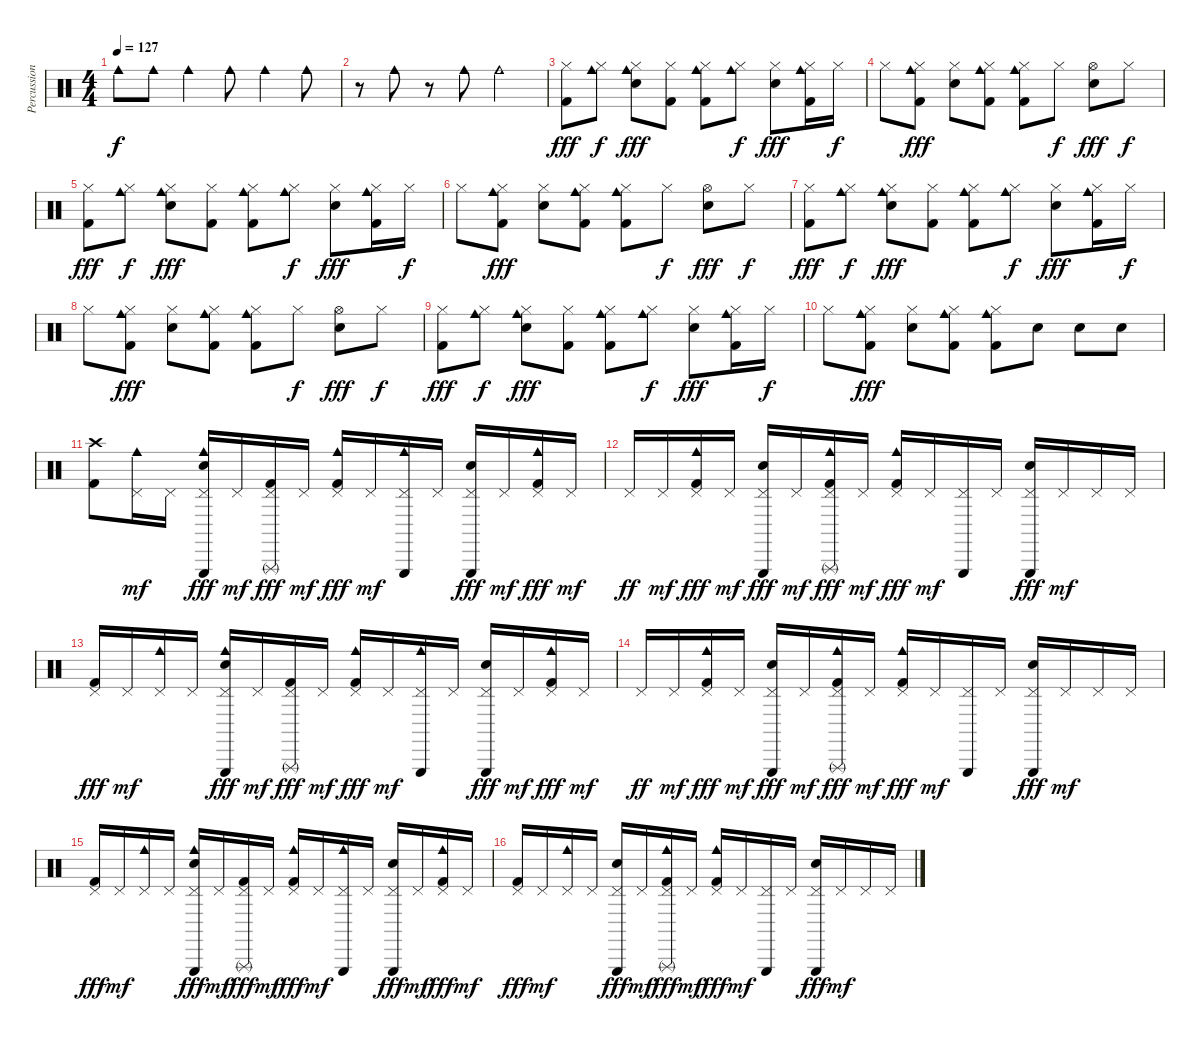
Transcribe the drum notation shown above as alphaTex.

\track ("Percussion" "Percussion") {instrument percussion}
\staff {score}
\articulation defaults
\ts (4 4)
\tempo 127
\clef neutral
\ks c "Cowbell medium (hit)".8{dy f volume 12} "Cowbell medium (hit)".8 "Cowbell medium (hit)".4 "Cowbell medium (hit)".8 "Cowbell medium (hit)".4 "Cowbell medium (hit)".8
|
r.8 "Cowbell medium (hit)".8 r.8 "Cowbell medium (hit)".8 "Cowbell medium (hit)".2 |
("Hi-Hat (closed)" "Kick (hit) 2").8{dy fff} ("Hi-Hat (closed)" "Cowbell medium (hit)").8{dy f} ("Hi-Hat (closed)" "Cowbell medium (hit)" "Electric Snare (hit)").8{dy fff} ("Hi-Hat (closed)" "Kick (hit) 2").8 ("Hi-Hat (closed)" "Cowbell medium (hit)" "Kick (hit) 2").8 ("Hi-Hat (closed)" "Cowbell medium (hit)").8{dy f} ("Hi-Hat (closed)" "Electric Snare (hit)").8{dy fff} ("Hi-Hat (closed)" "Cowbell medium (hit)" "Kick (hit) 2").16 "Hi-Hat (closed)".16{dy f} |
"Hi-Hat (closed)".8 ("Hi-Hat (closed)" "Cowbell medium (hit)" "Kick (hit) 2").8{dy fff} ("Hi-Hat (closed)" "Electric Snare (hit)").8 ("Hi-Hat (closed)" "Cowbell medium (hit)" "Kick (hit) 2").8 ("Hi-Hat (closed)" "Cowbell medium (hit)" "Kick (hit) 2").8 "Hi-Hat (closed)".8{dy f} ("Hi-Hat (open)" "Electric Snare (hit)").8{dy fff} "Hi-Hat (closed)".8{dy f} |
("Hi-Hat (closed)" "Kick (hit) 2").8{dy fff} ("Hi-Hat (closed)" "Cowbell medium (hit)").8{dy f} ("Hi-Hat (closed)" "Cowbell medium (hit)" "Electric Snare (hit)").8{dy fff} ("Hi-Hat (closed)" "Kick (hit) 2").8 ("Hi-Hat (closed)" "Cowbell medium (hit)" "Kick (hit) 2").8 ("Hi-Hat (closed)" "Cowbell medium (hit)").8{dy f} ("Hi-Hat (closed)" "Electric Snare (hit)").8{dy fff} ("Hi-Hat (closed)" "Cowbell medium (hit)" "Kick (hit) 2").16 "Hi-Hat (closed)".16{dy f} |
"Hi-Hat (closed)".8 ("Hi-Hat (closed)" "Cowbell medium (hit)" "Kick (hit) 2").8{dy fff} ("Hi-Hat (closed)" "Electric Snare (hit)").8 ("Hi-Hat (closed)" "Cowbell medium (hit)" "Kick (hit) 2").8 ("Hi-Hat (closed)" "Cowbell medium (hit)" "Kick (hit) 2").8 "Hi-Hat (closed)".8{dy f} ("Hi-Hat (open)" "Electric Snare (hit)").8{dy fff} "Hi-Hat (closed)".8{dy f} |
("Hi-Hat (closed)" "Kick (hit) 2").8{dy fff} ("Hi-Hat (closed)" "Cowbell medium (hit)").8{dy f} ("Hi-Hat (closed)" "Cowbell medium (hit)" "Electric Snare (hit)").8{dy fff} ("Hi-Hat (closed)" "Kick (hit) 2").8 ("Hi-Hat (closed)" "Cowbell medium (hit)" "Kick (hit) 2").8 ("Hi-Hat (closed)" "Cowbell medium (hit)").8{dy f} ("Hi-Hat (closed)" "Electric Snare (hit)").8{dy fff} ("Hi-Hat (closed)" "Cowbell medium (hit)" "Kick (hit) 2").16 "Hi-Hat (closed)".16{dy f} |
"Hi-Hat (closed)".8 ("Hi-Hat (closed)" "Cowbell medium (hit)" "Kick (hit) 2").8{dy fff} ("Hi-Hat (closed)" "Electric Snare (hit)").8 ("Hi-Hat (closed)" "Cowbell medium (hit)" "Kick (hit) 2").8 ("Hi-Hat (closed)" "Cowbell medium (hit)" "Kick (hit) 2").8 "Hi-Hat (closed)".8{dy f} ("Hi-Hat (open)" "Electric Snare (hit)").8{dy fff} "Hi-Hat (closed)".8{dy f} |
("Hi-Hat (closed)" "Kick (hit) 2").8{dy fff} ("Hi-Hat (closed)" "Cowbell medium (hit)").8{dy f} ("Hi-Hat (closed)" "Cowbell medium (hit)" "Electric Snare (hit)").8{dy fff} ("Hi-Hat (closed)" "Kick (hit) 2").8 ("Hi-Hat (closed)" "Cowbell medium (hit)" "Kick (hit) 2").8 ("Hi-Hat (closed)" "Cowbell medium (hit)").8{dy f} ("Hi-Hat (closed)" "Electric Snare (hit)").8{dy fff} ("Hi-Hat (closed)" "Cowbell medium (hit)" "Kick (hit) 2").16 "Hi-Hat (closed)".16{dy f} |
"Hi-Hat (closed)".8 ("Hi-Hat (closed)" "Cowbell medium (hit)" "Kick (hit) 2").8{dy fff} ("Hi-Hat (closed)" "Electric Snare (hit)").8 ("Hi-Hat (closed)" "Cowbell medium (hit)" "Kick (hit) 2").8 ("Hi-Hat (closed)" "Cowbell medium (hit)" "Kick (hit) 2").8 "Electric Snare (hit)".8 "Electric Snare (hit)".8 "Electric Snare (hit)".8 |
("Crash high (hit)" "Kick (hit) 2").8 ("Pedal Hi-Hat (hit)" "Cowbell medium (hit)").16{dy mf} "Pedal Hi-Hat (hit)".16 ("Pedal Hi-Hat (hit)" "Triangle (hit)" "Electric Snare (hit)" "Cowbell medium (hit)").16{dy fff} "Pedal Hi-Hat (hit)".16{dy mf} ("Pedal Hi-Hat (hit)" "Triangle (rnute)" "Kick (hit) 2").16{dy fff} "Pedal Hi-Hat (hit)".16{dy mf} ("Pedal Hi-Hat (hit)" "Cowbell medium (hit)" "Kick (hit) 2").16{dy fff} "Pedal Hi-Hat (hit)".16{dy mf} ("Pedal Hi-Hat (hit)" "Triangle (hit)" "Cowbell medium (hit)").16 "Pedal Hi-Hat (hit)".16 ("Pedal Hi-Hat (hit)" "Triangle (hit)" "Electric Snare (hit)").16{dy fff} "Pedal Hi-Hat (hit)".16{dy mf} ("Pedal Hi-Hat (hit)" "Cowbell medium (hit)" "Kick (hit) 2").16{dy fff} "Pedal Hi-Hat (hit)".16{dy mf} |
"Pedal Hi-Hat (hit)".16{dy ff} "Pedal Hi-Hat (hit)".16{dy mf} ("Pedal Hi-Hat (hit)" "Cowbell medium (hit)" "Kick (hit) 2").16{dy fff} "Pedal Hi-Hat (hit)".16{dy mf} ("Pedal Hi-Hat (hit)" "Triangle (hit)" "Electric Snare (hit)").16{dy fff} "Pedal Hi-Hat (hit)".16{dy mf} ("Pedal Hi-Hat (hit)" "Triangle (rnute)" "Cowbell medium (hit)" "Kick (hit) 2").16{dy fff} "Pedal Hi-Hat (hit)".16{dy mf} ("Pedal Hi-Hat (hit)" "Cowbell medium (hit)" "Kick (hit) 2").16{dy fff} "Pedal Hi-Hat (hit)".16{dy mf} ("Pedal Hi-Hat (hit)" "Triangle (hit)").16 "Pedal Hi-Hat (hit)".16 ("Pedal Hi-Hat (hit)" "Triangle (hit)" "Electric Snare (hit)").16{dy fff} "Pedal Hi-Hat (hit)".16{dy mf} "Pedal Hi-Hat (hit)".16 "Pedal Hi-Hat (hit)".16 |
("Pedal Hi-Hat (hit)" "Kick (hit) 2").16{dy fff} "Pedal Hi-Hat (hit)".16{dy mf} ("Pedal Hi-Hat (hit)" "Cowbell medium (hit)").16 "Pedal Hi-Hat (hit)".16 ("Pedal Hi-Hat (hit)" "Triangle (hit)" "Electric Snare (hit)" "Cowbell medium (hit)").16{dy fff} "Pedal Hi-Hat (hit)".16{dy mf} ("Pedal Hi-Hat (hit)" "Triangle (rnute)" "Kick (hit) 2").16{dy fff} "Pedal Hi-Hat (hit)".16{dy mf} ("Pedal Hi-Hat (hit)" "Cowbell medium (hit)" "Kick (hit) 2").16{dy fff} "Pedal Hi-Hat (hit)".16{dy mf} ("Pedal Hi-Hat (hit)" "Triangle (hit)" "Cowbell medium (hit)").16 "Pedal Hi-Hat (hit)".16 ("Pedal Hi-Hat (hit)" "Triangle (hit)" "Electric Snare (hit)").16{dy fff} "Pedal Hi-Hat (hit)".16{dy mf} ("Pedal Hi-Hat (hit)" "Cowbell medium (hit)" "Kick (hit) 2").16{dy fff} "Pedal Hi-Hat (hit)".16{dy mf} |
"Pedal Hi-Hat (hit)".16{dy ff} "Pedal Hi-Hat (hit)".16{dy mf} ("Pedal Hi-Hat (hit)" "Cowbell medium (hit)" "Kick (hit) 2").16{dy fff} "Pedal Hi-Hat (hit)".16{dy mf} ("Pedal Hi-Hat (hit)" "Triangle (hit)" "Electric Snare (hit)").16{dy fff} "Pedal Hi-Hat (hit)".16{dy mf} ("Pedal Hi-Hat (hit)" "Triangle (rnute)" "Cowbell medium (hit)" "Kick (hit) 2").16{dy fff} "Pedal Hi-Hat (hit)".16{dy mf} ("Pedal Hi-Hat (hit)" "Cowbell medium (hit)" "Kick (hit) 2").16{dy fff} "Pedal Hi-Hat (hit)".16{dy mf} ("Pedal Hi-Hat (hit)" "Triangle (hit)").16 "Pedal Hi-Hat (hit)".16 ("Pedal Hi-Hat (hit)" "Triangle (hit)" "Electric Snare (hit)").16{dy fff} "Pedal Hi-Hat (hit)".16{dy mf} "Pedal Hi-Hat (hit)".16 "Pedal Hi-Hat (hit)".16 |
("Pedal Hi-Hat (hit)" "Kick (hit) 2").16{dy fff} "Pedal Hi-Hat (hit)".16{dy mf} ("Pedal Hi-Hat (hit)" "Cowbell medium (hit)").16 "Pedal Hi-Hat (hit)".16 ("Pedal Hi-Hat (hit)" "Triangle (hit)" "Electric Snare (hit)" "Cowbell medium (hit)").16{dy fff} "Pedal Hi-Hat (hit)".16{dy mf} ("Pedal Hi-Hat (hit)" "Triangle (rnute)" "Kick (hit) 2").16{dy fff} "Pedal Hi-Hat (hit)".16{dy mf} ("Pedal Hi-Hat (hit)" "Cowbell medium (hit)" "Kick (hit) 2").16{dy fff} "Pedal Hi-Hat (hit)".16{dy mf} ("Pedal Hi-Hat (hit)" "Triangle (hit)" "Cowbell medium (hit)").16 "Pedal Hi-Hat (hit)".16 ("Pedal Hi-Hat (hit)" "Triangle (hit)" "Electric Snare (hit)").16{dy fff} "Pedal Hi-Hat (hit)".16{dy mf} ("Pedal Hi-Hat (hit)" "Cowbell medium (hit)" "Kick (hit) 2").16{dy fff} "Pedal Hi-Hat (hit)".16{dy mf} |
("Pedal Hi-Hat (hit)" "Kick (hit) 2").16{dy fff} "Pedal Hi-Hat (hit)".16{dy mf} ("Pedal Hi-Hat (hit)" "Cowbell medium (hit)").16 "Pedal Hi-Hat (hit)".16 ("Pedal Hi-Hat (hit)" "Triangle (hit)" "Electric Snare (hit)").16{dy fff} "Pedal Hi-Hat (hit)".16{dy mf} ("Pedal Hi-Hat (hit)" "Triangle (rnute)" "Cowbell medium (hit)" "Kick (hit) 2").16{dy fff} "Pedal Hi-Hat (hit)".16{dy mf} ("Pedal Hi-Hat (hit)" "Cowbell medium (hit)" "Kick (hit) 2").16{dy fff} "Pedal Hi-Hat (hit)".16{dy mf} ("Pedal Hi-Hat (hit)" "Triangle (hit)").16 "Pedal Hi-Hat (hit)".16 ("Pedal Hi-Hat (hit)" "Triangle (hit)" "Electric Snare (hit)").16{dy fff} "Pedal Hi-Hat (hit)".16{dy mf} "Pedal Hi-Hat (hit)".16 "Pedal Hi-Hat (hit)".16
